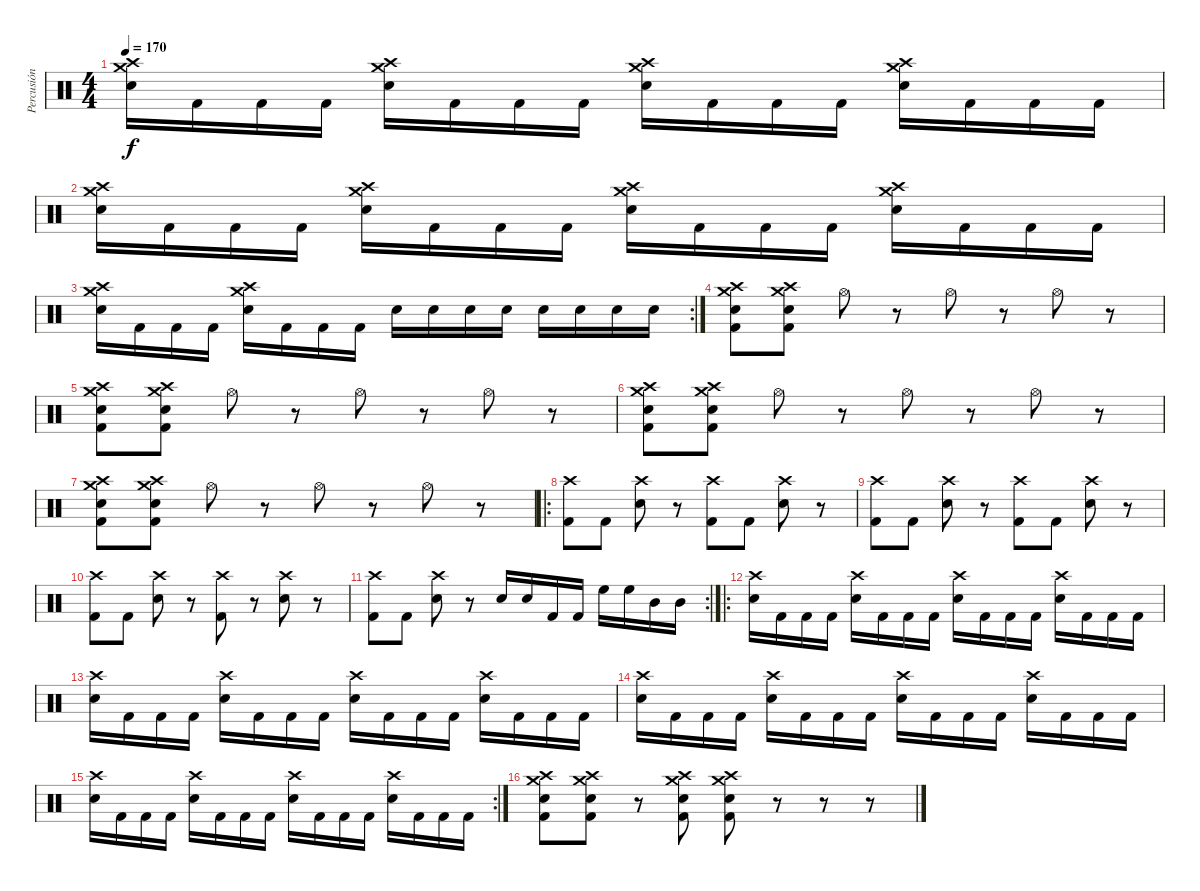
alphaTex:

\track ("Percusión" "Percusión") {instrument percussion}
\staff {score}
\articulation defaults
\ts (4 4)
\tempo 170
\clef neutral
\ks c
("Crash medium (hit)" "Crash high (hit)" "Electric Snare (hit)").16{dy f} "Kick (hit) 2".16 "Kick (hit) 2".16 "Kick (hit) 2".16 ("Crash medium (hit)" "Crash high (hit)" "Electric Snare (hit)").16 "Kick (hit) 2".16 "Kick (hit) 2".16 "Kick (hit) 2".16 ("Crash medium (hit)" "Crash high (hit)" "Electric Snare (hit)").16 "Kick (hit) 2".16 "Kick (hit) 2".16 "Kick (hit) 2".16 ("Crash medium (hit)" "Crash high (hit)" "Electric Snare (hit)").16 "Kick (hit) 2".16 "Kick (hit) 2".16 "Kick (hit) 2".16 |
("Crash medium (hit)" "Crash high (hit)" "Electric Snare (hit)").16 "Kick (hit) 2".16 "Kick (hit) 2".16 "Kick (hit) 2".16 ("Crash medium (hit)" "Crash high (hit)" "Electric Snare (hit)").16 "Kick (hit) 2".16 "Kick (hit) 2".16 "Kick (hit) 2".16 ("Crash medium (hit)" "Crash high (hit)" "Electric Snare (hit)").16 "Kick (hit) 2".16 "Kick (hit) 2".16 "Kick (hit) 2".16 ("Crash medium (hit)" "Crash high (hit)" "Electric Snare (hit)").16 "Kick (hit) 2".16 "Kick (hit) 2".16 "Kick (hit) 2".16 |
\rc 2
("Crash medium (hit)" "Crash high (hit)" "Electric Snare (hit)").16 "Kick (hit) 2".16 "Kick (hit) 2".16 "Kick (hit) 2".16 ("Crash medium (hit)" "Crash high (hit)" "Electric Snare (hit)").16 "Kick (hit) 2".16 "Kick (hit) 2".16 "Kick (hit) 2".16 "Electric Snare (hit)".16 "Electric Snare (hit)".16 "Electric Snare (hit)".16 "Electric Snare (hit)".16 "Electric Snare (hit)".16 "Electric Snare (hit)".16 "Electric Snare (hit)".16 "Electric Snare (hit)".16 |
("Crash medium (hit)" "Crash high (hit)" "Electric Snare (hit)" "Kick (hit) 2").8 ("Crash medium (hit)" "Crash high (hit)" "Electric Snare (hit)" "Kick (hit) 2").8 "Hi-Hat (open)".8 r.8 "Hi-Hat (open)".8 r.8 "Hi-Hat (open)".8 r.8 |
("Crash medium (hit)" "Crash high (hit)" "Electric Snare (hit)" "Kick (hit) 2").8 ("Crash medium (hit)" "Crash high (hit)" "Electric Snare (hit)" "Kick (hit) 2").8 "Hi-Hat (open)".8 r.8 "Hi-Hat (open)".8 r.8 "Hi-Hat (open)".8 r.8 |
("Crash medium (hit)" "Crash high (hit)" "Electric Snare (hit)" "Kick (hit) 2").8 ("Crash medium (hit)" "Crash high (hit)" "Electric Snare (hit)" "Kick (hit) 2").8 "Hi-Hat (open)".8 r.8 "Hi-Hat (open)".8 r.8 "Hi-Hat (open)".8 r.8 |
("Crash medium (hit)" "Crash high (hit)" "Electric Snare (hit)" "Kick (hit) 2").8 ("Crash medium (hit)" "Crash high (hit)" "Electric Snare (hit)" "Kick (hit) 2").8 "Hi-Hat (open)".8 r.8 "Hi-Hat (open)".8 r.8 "Hi-Hat (open)".8 r.8 |
\ro
("Crash high (hit)" "Kick (hit) 2").8 "Kick (hit) 2".8 ("Crash high (hit)" "Electric Snare (hit)").8 r.8 ("Crash high (hit)" "Kick (hit) 2").8 "Kick (hit) 2".8 ("Crash high (hit)" "Electric Snare (hit)").8 r.8 |
("Crash high (hit)" "Kick (hit) 2").8 "Kick (hit) 2".8 ("Crash high (hit)" "Electric Snare (hit)").8 r.8 ("Crash high (hit)" "Kick (hit) 2").8 "Kick (hit) 2".8 ("Crash high (hit)" "Electric Snare (hit)").8 r.8 |
("Crash high (hit)" "Kick (hit) 2").8 "Kick (hit) 2".8 ("Crash high (hit)" "Electric Snare (hit)").8 r.8 ("Crash high (hit)" "Kick (hit) 2").8 r.8 ("Crash high (hit)" "Electric Snare (hit)").8 r.8 |
\rc 2
("Crash high (hit)" "Kick (hit) 2").8 "Kick (hit) 2".8 ("Crash high (hit)" "Electric Snare (hit)").8 r.8 "Electric Snare (hit)".16 "Electric Snare (hit)".16 "Kick (hit) 2".16 "Kick (hit) 2".16 "High Floor Tom (hit)".16 "High Floor Tom (hit)".16 "Mid Tom (hit)".16 "Mid Tom (hit)".16 |
\ro
("Crash high (hit)" "Electric Snare (hit)").16 "Kick (hit) 2".16 "Kick (hit) 2".16 "Kick (hit) 2".16 ("Crash high (hit)" "Electric Snare (hit)").16 "Kick (hit) 2".16 "Kick (hit) 2".16 "Kick (hit) 2".16 ("Crash high (hit)" "Electric Snare (hit)").16 "Kick (hit) 2".16 "Kick (hit) 2".16 "Kick (hit) 2".16 ("Crash high (hit)" "Electric Snare (hit)").16 "Kick (hit) 2".16 "Kick (hit) 2".16 "Kick (hit) 2".16 |
("Crash high (hit)" "Electric Snare (hit)").16 "Kick (hit) 2".16 "Kick (hit) 2".16 "Kick (hit) 2".16 ("Crash high (hit)" "Electric Snare (hit)").16 "Kick (hit) 2".16 "Kick (hit) 2".16 "Kick (hit) 2".16 ("Crash high (hit)" "Electric Snare (hit)").16 "Kick (hit) 2".16 "Kick (hit) 2".16 "Kick (hit) 2".16 ("Crash high (hit)" "Electric Snare (hit)").16 "Kick (hit) 2".16 "Kick (hit) 2".16 "Kick (hit) 2".16 |
("Crash high (hit)" "Electric Snare (hit)").16 "Kick (hit) 2".16 "Kick (hit) 2".16 "Kick (hit) 2".16 ("Crash high (hit)" "Electric Snare (hit)").16 "Kick (hit) 2".16 "Kick (hit) 2".16 "Kick (hit) 2".16 ("Crash high (hit)" "Electric Snare (hit)").16 "Kick (hit) 2".16 "Kick (hit) 2".16 "Kick (hit) 2".16 ("Crash high (hit)" "Electric Snare (hit)").16 "Kick (hit) 2".16 "Kick (hit) 2".16 "Kick (hit) 2".16 |
\rc 2
("Crash high (hit)" "Electric Snare (hit)").16 "Kick (hit) 2".16 "Kick (hit) 2".16 "Kick (hit) 2".16 ("Crash high (hit)" "Electric Snare (hit)").16 "Kick (hit) 2".16 "Kick (hit) 2".16 "Kick (hit) 2".16 ("Crash high (hit)" "Electric Snare (hit)").16 "Kick (hit) 2".16 "Kick (hit) 2".16 "Kick (hit) 2".16 ("Crash high (hit)" "Electric Snare (hit)").16 "Kick (hit) 2".16 "Kick (hit) 2".16 "Kick (hit) 2".16 |
("Crash medium (hit)" "Crash high (hit)" "Electric Snare (hit)" "Kick (hit) 2").8 ("Crash medium (hit)" "Crash high (hit)" "Electric Snare (hit)" "Kick (hit) 2").8 r.8 ("Crash medium (hit)" "Crash high (hit)" "Electric Snare (hit)" "Kick (hit) 2").8 ("Crash medium (hit)" "Crash high (hit)" "Electric Snare (hit)" "Kick (hit) 2").8 r.8 r.8 r.8
